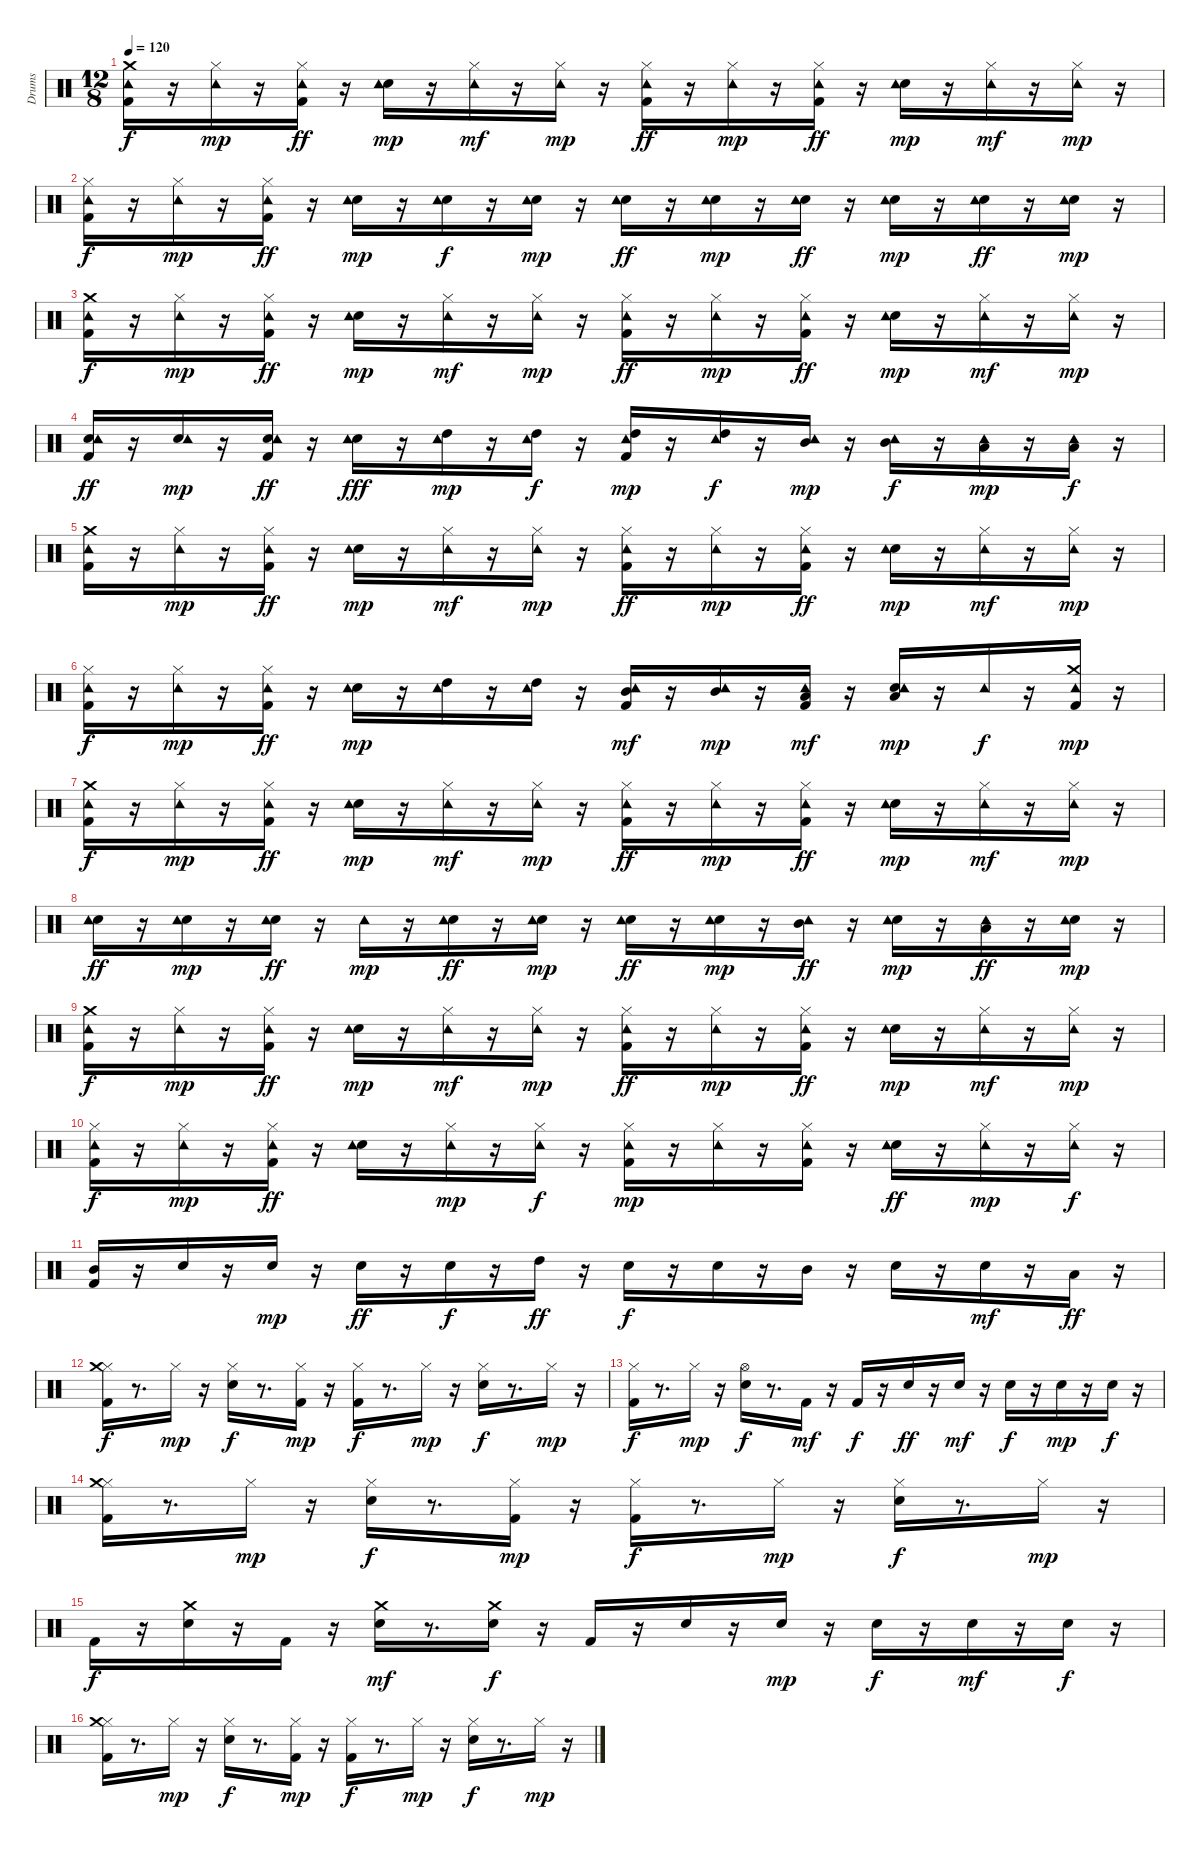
\track ("Drums" "Drums") {instrument percussion}
\staff {score}
\articulation defaults
\ts (12 8)
\tempo 120
\clef neutral
\ks c
("Kick (hit) 2" "Crash medium (hit)" "Tambourine (hit)").16{dy f} r.16 ("Hi-Hat (closed)" "Tambourine (hit)").16{dy mp} r.16 ("Kick (hit) 2" "Hi-Hat (closed)" "Tambourine (hit)").16{dy ff} r.16 ("Snare (hit) 2" "Tambourine (hit)").16{dy mp} r.16 ("Hi-Hat (closed)" "Tambourine (hit)").16{dy mf} r.16 ("Hi-Hat (closed)" "Tambourine (hit)").16{dy mp} r.16 ("Kick (hit) 2" "Hi-Hat (closed)" "Tambourine (hit)").16{dy ff} r.16 ("Hi-Hat (closed)" "Tambourine (hit)").16{dy mp} r.16 ("Kick (hit) 2" "Hi-Hat (closed)" "Tambourine (hit)").16{dy ff} r.16 ("Snare (hit) 2" "Tambourine (hit)").16{dy mp} r.16 ("Hi-Hat (closed)" "Tambourine (hit)").16{dy mf} r.16 ("Hi-Hat (closed)" "Tambourine (hit)").16{dy mp} r.16 |
("Kick (hit) 2" "Hi-Hat (closed)" "Tambourine (hit)").16{dy f} r.16 ("Hi-Hat (closed)" "Tambourine (hit)").16{dy mp} r.16 ("Kick (hit) 2" "Hi-Hat (closed)" "Tambourine (hit)").16{dy ff} r.16 ("Snare (hit) 2" "Tambourine (hit)").16{dy mp} r.16 ("Snare (hit) 2" "Tambourine (hit)").16{dy f} r.16 ("Snare (hit) 2" "Tambourine (hit)").16{dy mp} r.16 ("Snare (hit) 2" "Tambourine (hit)").16{dy ff} r.16 ("Snare (hit) 2" "Tambourine (hit)").16{dy mp} r.16 ("Snare (hit) 2" "Tambourine (hit)").16{dy ff} r.16 ("Snare (hit) 2" "Tambourine (hit)").16{dy mp} r.16 ("Snare (hit) 2" "Tambourine (hit)").16{dy ff} r.16 ("Snare (hit) 2" "Tambourine (hit)").16{dy mp} r.16 |
("Kick (hit) 2" "Crash medium (hit)" "Tambourine (hit)").16{dy f} r.16 ("Hi-Hat (closed)" "Tambourine (hit)").16{dy mp} r.16 ("Kick (hit) 2" "Hi-Hat (closed)" "Tambourine (hit)").16{dy ff} r.16 ("Snare (hit) 2" "Tambourine (hit)").16{dy mp} r.16 ("Hi-Hat (closed)" "Tambourine (hit)").16{dy mf} r.16 ("Hi-Hat (closed)" "Tambourine (hit)").16{dy mp} r.16 ("Kick (hit) 2" "Hi-Hat (closed)" "Tambourine (hit)").16{dy ff} r.16 ("Hi-Hat (closed)" "Tambourine (hit)").16{dy mp} r.16 ("Kick (hit) 2" "Hi-Hat (closed)" "Tambourine (hit)").16{dy ff} r.16 ("Snare (hit) 2" "Tambourine (hit)").16{dy mp} r.16 ("Hi-Hat (closed)" "Tambourine (hit)").16{dy mf} r.16 ("Hi-Hat (closed)" "Tambourine (hit)").16{dy mp} r.16 |
("Kick (hit) 2" "Snare (hit) 2" "Tambourine (hit)").16{dy ff} r.16 ("Snare (hit) 2" "Tambourine (hit)").16{dy mp} r.16 ("Kick (hit) 2" "Snare (hit) 2" "Tambourine (hit)").16{dy ff} r.16 ("Snare (hit) 2" "Tambourine (hit)").16{dy fff} r.16 ("High Tom (hit)" "Tambourine (hit)").16{dy mp} r.16 ("High Tom (hit)" "Tambourine (hit)").16{dy f} r.16 ("Kick (hit) 2" "High Tom (hit)" "Tambourine (hit)").16{dy mp} r.16 ("High Tom (hit)" "Tambourine (hit)").16{dy f} r.16 ("Mid Tom (hit)" "Tambourine (hit)").16{dy mp} r.16 ("Mid Tom (hit)" "Tambourine (hit)").16{dy f} r.16 ("Low Floor Tom (hit)" "Tambourine (hit)").16{dy mp} r.16 ("Low Floor Tom (hit)" "Tambourine (hit)").16{dy f} r.16 |
("Kick (hit) 2" "Crash medium (hit)" "Tambourine (hit)").16 r.16 ("Hi-Hat (closed)" "Tambourine (hit)").16{dy mp} r.16 ("Kick (hit) 2" "Hi-Hat (closed)" "Tambourine (hit)").16{dy ff} r.16 ("Snare (hit) 2" "Tambourine (hit)").16{dy mp} r.16 ("Hi-Hat (closed)" "Tambourine (hit)").16{dy mf} r.16 ("Hi-Hat (closed)" "Tambourine (hit)").16{dy mp} r.16 ("Kick (hit) 2" "Hi-Hat (closed)" "Tambourine (hit)").16{dy ff} r.16 ("Hi-Hat (closed)" "Tambourine (hit)").16{dy mp} r.16 ("Kick (hit) 2" "Hi-Hat (closed)" "Tambourine (hit)").16{dy ff} r.16 ("Snare (hit) 2" "Tambourine (hit)").16{dy mp} r.16 ("Hi-Hat (closed)" "Tambourine (hit)").16{dy mf} r.16 ("Hi-Hat (closed)" "Tambourine (hit)").16{dy mp} r.16 |
("Kick (hit) 2" "Hi-Hat (closed)" "Tambourine (hit)").16{dy f} r.16 ("Hi-Hat (closed)" "Tambourine (hit)").16{dy mp} r.16 ("Kick (hit) 2" "Hi-Hat (closed)" "Tambourine (hit)").16{dy ff} r.16 ("Snare (hit) 2" "Tambourine (hit)").16{dy mp} r.16 ("High Tom (hit)" "Tambourine (hit)").16 r.16 ("High Tom (hit)" "Tambourine (hit)").16 r.16 ("Kick (hit) 2" "Mid Tom (hit)" "Tambourine (hit)").16{dy mf} r.16 ("Mid Tom (hit)" "Tambourine (hit)").16{dy mp} r.16 ("Kick (hit) 2" "Low Floor Tom (hit)" "Tambourine (hit)").16{dy mf} r.16 ("Snare (hit) 2" "Low Floor Tom (hit)" "Tambourine (hit)").16{dy mp} r.16 "Tambourine (hit)".16{dy f} r.16 ("Kick (hit) 2" "Crash medium (hit)" "Tambourine (hit)").16{dy mp} r.16 |
("Kick (hit) 2" "Crash medium (hit)" "Tambourine (hit)").16{dy f} r.16 ("Hi-Hat (closed)" "Tambourine (hit)").16{dy mp} r.16 ("Kick (hit) 2" "Hi-Hat (closed)" "Tambourine (hit)").16{dy ff} r.16 ("Snare (hit) 2" "Tambourine (hit)").16{dy mp} r.16 ("Hi-Hat (closed)" "Tambourine (hit)").16{dy mf} r.16 ("Hi-Hat (closed)" "Tambourine (hit)").16{dy mp} r.16 ("Kick (hit) 2" "Hi-Hat (closed)" "Tambourine (hit)").16{dy ff} r.16 ("Hi-Hat (closed)" "Tambourine (hit)").16{dy mp} r.16 ("Kick (hit) 2" "Hi-Hat (closed)" "Tambourine (hit)").16{dy ff} r.16 ("Snare (hit) 2" "Tambourine (hit)").16{dy mp} r.16 ("Hi-Hat (closed)" "Tambourine (hit)").16{dy mf} r.16 ("Hi-Hat (closed)" "Tambourine (hit)").16{dy mp} r.16 |
("Snare (hit) 2" "Tambourine (hit)").16{dy ff} r.16 ("Snare (hit) 2" "Tambourine (hit)").16{dy mp} r.16 ("Snare (hit) 2" "Tambourine (hit)").16{dy ff} r.16 "Tambourine (hit)".16{dy mp} r.16 ("Snare (hit) 2" "Tambourine (hit)").16{dy ff} r.16 ("Snare (hit) 2" "Tambourine (hit)").16{dy mp} r.16 ("Snare (hit) 2" "Tambourine (hit)").16{dy ff} r.16 ("Snare (hit) 2" "Tambourine (hit)").16{dy mp} r.16 ("Mid Tom (hit)" "Tambourine (hit)").16{dy ff} r.16 ("Snare (hit) 2" "Tambourine (hit)").16{dy mp} r.16 ("Low Floor Tom (hit)" "Tambourine (hit)").16{dy ff} r.16 ("Snare (hit) 2" "Tambourine (hit)").16{dy mp} r.16 |
("Kick (hit) 2" "Crash medium (hit)" "Tambourine (hit)").16{dy f} r.16 ("Hi-Hat (closed)" "Tambourine (hit)").16{dy mp} r.16 ("Kick (hit) 2" "Hi-Hat (closed)" "Tambourine (hit)").16{dy ff} r.16 ("Snare (hit) 2" "Tambourine (hit)").16{dy mp} r.16 ("Hi-Hat (closed)" "Tambourine (hit)").16{dy mf} r.16 ("Hi-Hat (closed)" "Tambourine (hit)").16{dy mp} r.16 ("Kick (hit) 2" "Hi-Hat (closed)" "Tambourine (hit)").16{dy ff} r.16 ("Hi-Hat (closed)" "Tambourine (hit)").16{dy mp} r.16 ("Kick (hit) 2" "Hi-Hat (closed)" "Tambourine (hit)").16{dy ff} r.16 ("Snare (hit) 2" "Tambourine (hit)").16{dy mp} r.16 ("Hi-Hat (closed)" "Tambourine (hit)").16{dy mf} r.16 ("Hi-Hat (closed)" "Tambourine (hit)").16{dy mp} r.16 |
("Kick (hit) 2" "Hi-Hat (closed)" "Tambourine (hit)").16{dy f} r.16 ("Hi-Hat (closed)" "Tambourine (hit)").16{dy mp} r.16 ("Kick (hit) 2" "Hi-Hat (closed)" "Tambourine (hit)").16{dy ff} r.16 ("Snare (hit) 2" "Tambourine (hit)").16 r.16 ("Hi-Hat (closed)" "Tambourine (hit)").16{dy mp} r.16 ("Hi-Hat (closed)" "Tambourine (hit)").16{dy f} r.16 ("Kick (hit) 2" "Hi-Hat (closed)" "Tambourine (hit)").16{dy mp} r.16 ("Hi-Hat (closed)" "Tambourine (hit)").16 r.16 ("Kick (hit) 2" "Hi-Hat (closed)" "Tambourine (hit)").16 r.16 ("Snare (hit) 2" "Tambourine (hit)").16{dy ff} r.16 ("Hi-Hat (closed)" "Tambourine (hit)").16{dy mp} r.16 ("Hi-Hat (closed)" "Tambourine (hit)").16{dy f} r.16 |
("Kick (hit) 2" "Mid Tom (hit)").16 r.16 "Snare (hit) 2".16 r.16 "Snare (hit) 2".16{dy mp} r.16 "Snare (hit) 2".16{dy ff} r.16 "Snare (hit) 2".16{dy f} r.16 "High Tom (hit)".16{dy ff} r.16 "Snare (hit) 2".16{dy f} r.16 "Snare (hit) 2".16 r.16 "Mid Tom (hit)".16 r.16 "Snare (hit) 2".16 r.16 "Snare (hit) 2".16{dy mf} r.16 "Low Floor Tom (hit)".16{dy ff} r.16 |
("Kick (hit) 2" "Hi-Hat (closed)" "Crash medium (hit)").16{dy f} r.8{d} "Hi-Hat (closed)".16{dy mp} r.16 ("Snare (hit) 2" "Hi-Hat (closed)").16{dy f} r.8{d} ("Kick (hit) 2" "Hi-Hat (closed)").16{dy mp} r.16 ("Kick (hit) 2" "Hi-Hat (closed)").16{dy f} r.8{d} "Hi-Hat (closed)".16{dy mp} r.16 ("Snare (hit) 2" "Hi-Hat (closed)").16{dy f} r.8{d} "Hi-Hat (closed)".16{dy mp} r.16 |
("Kick (hit) 2" "Hi-Hat (closed)").16{dy f} r.8{d} "Hi-Hat (closed)".16{dy mp} r.16 ("Snare (hit) 2" "Hi-Hat (open)").16{dy f} r.8{d} "Kick (hit) 2".16{dy mf} r.16 "Kick (hit) 2".16{dy f} r.16 "Snare (hit) 2".16{dy ff} r.16 "Snare (hit) 2".16{dy mf} r.16 "Snare (hit) 2".16{dy f} r.16 "Snare (hit) 2".16{dy mp} r.16 "Snare (hit) 2".16{dy f} r.16 |
("Kick (hit) 2" "Hi-Hat (closed)" "Crash medium (hit)").16 r.8{d} "Hi-Hat (closed)".16{dy mp} r.16 ("Snare (hit) 2" "Hi-Hat (closed)").16{dy f} r.8{d} ("Kick (hit) 2" "Hi-Hat (closed)").16{dy mp} r.16 ("Kick (hit) 2" "Hi-Hat (closed)").16{dy f} r.8{d} "Hi-Hat (closed)".16{dy mp} r.16 ("Snare (hit) 2" "Hi-Hat (closed)").16{dy f} r.8{d} "Hi-Hat (closed)".16{dy mp} r.16 |
"Kick (hit) 2".16{dy f} r.16 ("Snare (hit) 2" "Crash medium (hit)").16 r.16 "Kick (hit) 2".16 r.16 ("Snare (hit) 2" "Crash medium (hit)").16{dy mf} r.8{d} ("Snare (hit) 2" "Crash medium (hit)").16{dy f} r.16 "Kick (hit) 2".16 r.16 "Snare (hit) 2".16 r.16 "Snare (hit) 2".16{dy mp} r.16 "Snare (hit) 2".16{dy f} r.16 "Snare (hit) 2".16{dy mf} r.16 "Snare (hit) 2".16{dy f} r.16 |
("Kick (hit) 2" "Hi-Hat (closed)" "Crash medium (hit)").16 r.8{d} "Hi-Hat (closed)".16{dy mp} r.16 ("Snare (hit) 2" "Hi-Hat (closed)").16{dy f} r.8{d} ("Kick (hit) 2" "Hi-Hat (closed)").16{dy mp} r.16 ("Kick (hit) 2" "Hi-Hat (closed)").16{dy f} r.8{d} "Hi-Hat (closed)".16{dy mp} r.16 ("Snare (hit) 2" "Hi-Hat (closed)").16{dy f} r.8{d} "Hi-Hat (closed)".16{dy mp} r.16
